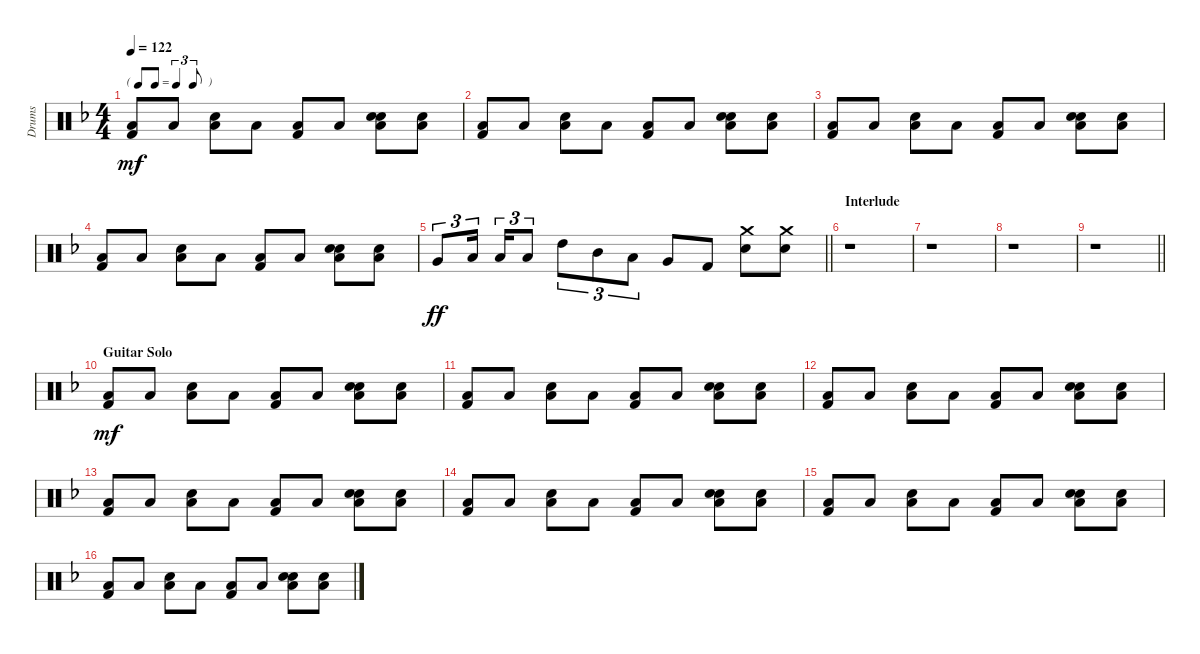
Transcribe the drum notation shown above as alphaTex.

\track ("Drums" "Drums") {instrument percussion}
\staff {score}
\articulation defaults
\ts (4 4)
\tf triplet8th
\tempo 122
\clef neutral
\ks dminor
("Low Floor Tom (hit)" "Kick (hit) 2").8{dy mf} "Low Floor Tom (hit)".8 ("Low Floor Tom (hit)" "Snare (hit) 2").8 "Low Floor Tom (hit)".8 ("Low Floor Tom (hit)" "Kick (hit) 2").8 "Low Floor Tom (hit)".8 ("Hand Clap (hit)" "Low Floor Tom (hit)" "Snare (hit) 2").8 ("Hand Clap (hit)" "Low Floor Tom (hit)").8 |
("Low Floor Tom (hit)" "Kick (hit) 2").8 "Low Floor Tom (hit)".8 ("Low Floor Tom (hit)" "Snare (hit) 2").8 "Low Floor Tom (hit)".8 ("Low Floor Tom (hit)" "Kick (hit) 2").8 "Low Floor Tom (hit)".8 ("Hand Clap (hit)" "Low Floor Tom (hit)" "Snare (hit) 2").8 ("Hand Clap (hit)" "Low Floor Tom (hit)").8 |
("Low Floor Tom (hit)" "Kick (hit) 2").8 "Low Floor Tom (hit)".8 ("Low Floor Tom (hit)" "Snare (hit) 2").8 "Low Floor Tom (hit)".8 ("Low Floor Tom (hit)" "Kick (hit) 2").8 "Low Floor Tom (hit)".8 ("Hand Clap (hit)" "Low Floor Tom (hit)" "Snare (hit) 2").8 ("Hand Clap (hit)" "Low Floor Tom (hit)").8 |
("Low Floor Tom (hit)" "Kick (hit) 2").8 "Low Floor Tom (hit)".8 ("Low Floor Tom (hit)" "Snare (hit) 2").8 "Low Floor Tom (hit)".8 ("Low Floor Tom (hit)" "Kick (hit) 2").8 "Low Floor Tom (hit)".8 ("Hand Clap (hit)" "Low Floor Tom (hit)" "Snare (hit) 2").8 ("Hand Clap (hit)" "Low Floor Tom (hit)").8 |
\barLineRight lightlight "Very Low Tom (hit)".8{tu (3 2) dy ff} "Low Tom (hit)".16{tu (3 2) beam splitsecondary} "Low Tom (hit)".16{tu (3 2)} "Low Tom (hit)".8{tu (3 2)} "High Tom (hit)".8{tu (3 2)} "Mid Tom (hit)".8{tu (3 2)} "Low Tom (hit)".8{tu (3 2)} "Very Low Tom (hit)".8 "Kick (hit) 2".8
("Crash medium (hit)" "Snare (hit) 2").8 ("Crash medium (hit)" "Snare (hit) 2").8 |
\section ("" "Interlude")
r.1 |
r.1 |
r.1 |
\barLineRight lightlight
r.1 |
\section ("" "Guitar Solo")
("Low Floor Tom (hit)" "Kick (hit) 2").8{dy mf} "Low Floor Tom (hit)".8 ("Low Floor Tom (hit)" "Snare (hit) 2").8 "Low Floor Tom (hit)".8 ("Low Floor Tom (hit)" "Kick (hit) 2").8 "Low Floor Tom (hit)".8 ("Hand Clap (hit)" "Low Floor Tom (hit)" "Snare (hit) 2").8 ("Hand Clap (hit)" "Low Floor Tom (hit)").8 |
("Low Floor Tom (hit)" "Kick (hit) 2").8 "Low Floor Tom (hit)".8 ("Low Floor Tom (hit)" "Snare (hit) 2").8 "Low Floor Tom (hit)".8 ("Low Floor Tom (hit)" "Kick (hit) 2").8 "Low Floor Tom (hit)".8 ("Hand Clap (hit)" "Low Floor Tom (hit)" "Snare (hit) 2").8 ("Hand Clap (hit)" "Low Floor Tom (hit)").8 |
("Low Floor Tom (hit)" "Kick (hit) 2").8 "Low Floor Tom (hit)".8 ("Low Floor Tom (hit)" "Snare (hit) 2").8 "Low Floor Tom (hit)".8 ("Low Floor Tom (hit)" "Kick (hit) 2").8 "Low Floor Tom (hit)".8 ("Hand Clap (hit)" "Low Floor Tom (hit)" "Snare (hit) 2").8 ("Hand Clap (hit)" "Low Floor Tom (hit)").8 |
("Low Floor Tom (hit)" "Kick (hit) 2").8 "Low Floor Tom (hit)".8 ("Low Floor Tom (hit)" "Snare (hit) 2").8 "Low Floor Tom (hit)".8 ("Low Floor Tom (hit)" "Kick (hit) 2").8 "Low Floor Tom (hit)".8 ("Hand Clap (hit)" "Low Floor Tom (hit)" "Snare (hit) 2").8 ("Hand Clap (hit)" "Low Floor Tom (hit)").8 |
("Low Floor Tom (hit)" "Kick (hit) 2").8 "Low Floor Tom (hit)".8 ("Low Floor Tom (hit)" "Snare (hit) 2").8 "Low Floor Tom (hit)".8 ("Low Floor Tom (hit)" "Kick (hit) 2").8 "Low Floor Tom (hit)".8 ("Hand Clap (hit)" "Low Floor Tom (hit)" "Snare (hit) 2").8 ("Hand Clap (hit)" "Low Floor Tom (hit)").8 |
("Low Floor Tom (hit)" "Kick (hit) 2").8 "Low Floor Tom (hit)".8 ("Low Floor Tom (hit)" "Snare (hit) 2").8 "Low Floor Tom (hit)".8 ("Low Floor Tom (hit)" "Kick (hit) 2").8 "Low Floor Tom (hit)".8 ("Hand Clap (hit)" "Low Floor Tom (hit)" "Snare (hit) 2").8 ("Hand Clap (hit)" "Low Floor Tom (hit)").8 |
("Low Floor Tom (hit)" "Kick (hit) 2").8 "Low Floor Tom (hit)".8 ("Low Floor Tom (hit)" "Snare (hit) 2").8 "Low Floor Tom (hit)".8 ("Low Floor Tom (hit)" "Kick (hit) 2").8 "Low Floor Tom (hit)".8 ("Hand Clap (hit)" "Low Floor Tom (hit)" "Snare (hit) 2").8 ("Hand Clap (hit)" "Low Floor Tom (hit)").8
